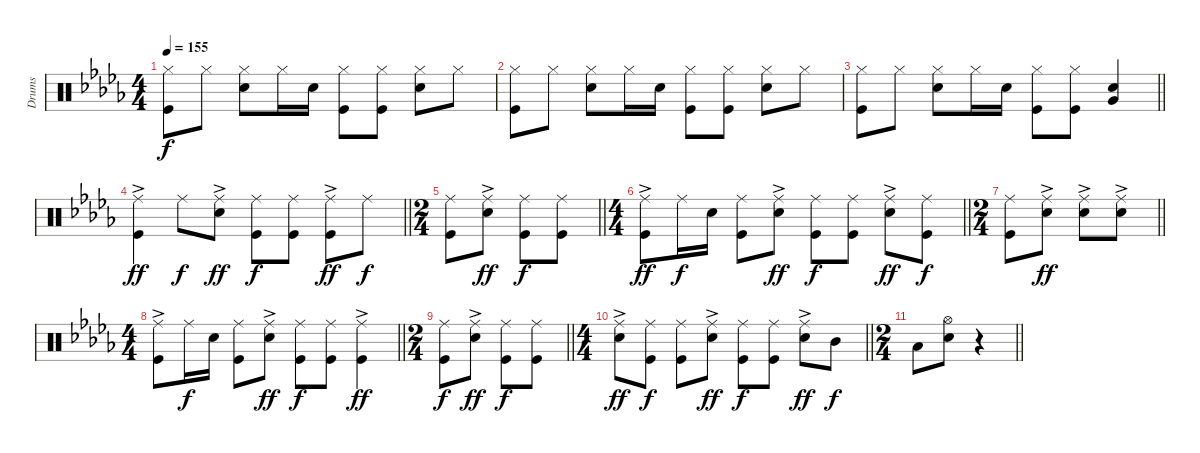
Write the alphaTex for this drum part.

\track ("Drums" "Drums") {instrument percussion}
\staff {score}
\articulation defaults
\ts (4 4)
\tempo 155
\clef neutral
\ks db
("Hi-Hat (closed)" "Kick (hit)").8{dy f} "Hi-Hat (closed)".8 ("Hi-Hat (closed)" "Snare (hit) 2").8 "Hi-Hat (closed)".16 "Snare (hit) 2".16 ("Hi-Hat (closed)" "Kick (hit)").8 ("Hi-Hat (closed)" "Kick (hit)").8 ("Hi-Hat (closed)" "Snare (hit) 2").8 "Hi-Hat (closed)".8 |
("Hi-Hat (closed)" "Kick (hit)").8 "Hi-Hat (closed)".8 ("Hi-Hat (closed)" "Snare (hit) 2").8 "Hi-Hat (closed)".16 "Snare (hit) 2".16 ("Hi-Hat (closed)" "Kick (hit)").8 ("Hi-Hat (closed)" "Kick (hit)").8 ("Hi-Hat (closed)" "Snare (hit) 2").8 "Hi-Hat (closed)".8 |
\barLineRight lightlight
("Hi-Hat (closed)" "Kick (hit)").8 "Hi-Hat (closed)".8 ("Hi-Hat (closed)" "Snare (hit) 2").8 "Hi-Hat (closed)".16 "Snare (hit) 2".16 ("Hi-Hat (closed)" "Kick (hit)").8 ("Hi-Hat (closed)" "Kick (hit)").8 ("Snare (hit) 2" "Very Low Tom (hit)").4 |
\barLineRight lightlight
("Ride (middle)"{ac} "Kick (hit)"{ac}).4{dy ff} "Ride (middle)".8{dy f} ("Ride (middle)"{ac} "Snare (hit) 2"{ac}).8{dy ff} ("Ride (middle)" "Kick (hit)").8{dy f} ("Ride (middle)" "Kick (hit)").8 ("Ride (middle)"{ac} "Kick (hit)"{ac}).8{dy ff} "Ride (middle)".8{dy f} |
\ts (2 4)
\barLineRight lightlight
("Ride (middle)" "Kick (hit)").8 ("Ride (middle)"{ac} "Snare (hit) 2"{ac}).8{dy ff} ("Ride (middle)" "Kick (hit)").8{dy f} ("Ride (middle)" "Kick (hit)").8 |
\ts (4 4)
\barLineRight lightlight
("Ride (middle)"{ac} "Kick (hit)"{ac}).8{dy ff} "Ride (middle)".16{dy f} "Snare (hit) 2".16 ("Ride (middle)" "Kick (hit)").8 ("Ride (middle)"{ac} "Snare (hit) 2"{ac}).8{dy ff} ("Ride (middle)" "Kick (hit)").8{dy f} ("Ride (middle)" "Kick (hit)").8 ("Ride (middle)"{ac} "Snare (hit) 2"{ac}).8{dy ff} ("Ride (middle)" "Kick (hit)").8{dy f} |
\ts (2 4)
\barLineRight lightlight
("Ride (middle)" "Kick (hit)").8 ("Ride (middle)"{ac} "Snare (hit) 2"{ac}).8{dy ff} ("Ride (middle)"{ac} "Snare (hit) 2"{ac}).8 ("Ride (middle)"{ac} "Snare (hit) 2"{ac}).8 |
\ts (4 4)
\barLineRight lightlight
("Ride (middle)"{ac} "Kick (hit)"{ac}).8 "Ride (middle)".16{dy f} "Snare (hit) 2".16 ("Ride (middle)" "Kick (hit)").8 ("Ride (middle)"{ac} "Snare (hit) 2"{ac}).8{dy ff} ("Ride (middle)" "Kick (hit)").8{dy f} ("Ride (middle)" "Kick (hit)").8 ("Ride (middle)"{ac} "Kick (hit)"{ac}).4{dy ff} |
\ts (2 4)
\barLineRight lightlight
("Ride (middle)" "Kick (hit)").8{dy f} ("Ride (middle)"{ac} "Snare (hit) 2"{ac}).8{dy ff} ("Ride (middle)" "Kick (hit)").8{dy f} ("Ride (middle)" "Kick (hit)").8 |
\ts (4 4)
\barLineRight lightlight
("Ride (middle)"{ac} "Snare (hit) 2"{ac}).8{dy ff} ("Ride (middle)" "Kick (hit)").8{dy f} ("Ride (middle)" "Kick (hit)").8 ("Ride (middle)"{ac} "Snare (hit) 2"{ac}).8{dy ff} ("Ride (middle)" "Kick (hit)").8{dy f} ("Ride (middle)" "Kick (hit)").8 ("Ride (middle)"{ac} "Snare (hit) 2"{ac}).8{dy ff} "Mid Tom (hit)".8{dy f} |
\ts (2 4)
\barLineRight lightlight "Low Tom (hit)".8
("Hi-Hat (open)" "Snare (hit) 2").8 r.4
